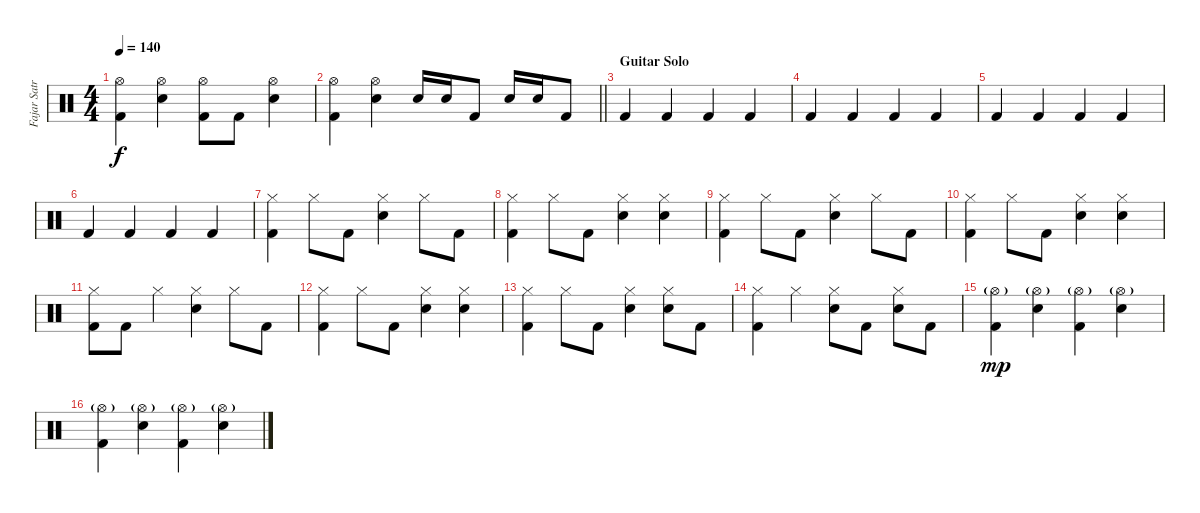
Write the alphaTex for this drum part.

\track ("Fajar Satriana" "Fajar Satr") {instrument percussion}
\staff {score}
\articulation defaults
\ts (4 4)
\tempo 140
\clef neutral
\ks c
("Hi-Hat (open)" "Kick (hit) 2").4{dy f} ("Hi-Hat (open)" "Electric Snare (hit)").4 ("Hi-Hat (open)" "Kick (hit) 2").8 "Kick (hit) 2".8 ("Hi-Hat (open)" "Electric Snare (hit)").4 |
\barLineRight lightlight
("Hi-Hat (open)" "Kick (hit) 2").4 ("Hi-Hat (open)" "Electric Snare (hit)").4 "Electric Snare (hit)".16 "Electric Snare (hit)".16 "Kick (hit) 2".8 "Electric Snare (hit)".16 "Electric Snare (hit)".16 "Kick (hit) 2".8 |
\section ("" "Guitar Solo")
"Kick (hit) 2".4 "Kick (hit) 2".4 "Kick (hit) 2".4 "Kick (hit) 2".4 |
"Kick (hit) 2".4 "Kick (hit) 2".4 "Kick (hit) 2".4 "Kick (hit) 2".4 |
"Kick (hit) 2".4 "Kick (hit) 2".4 "Kick (hit) 2".4 "Kick (hit) 2".4 |
"Kick (hit) 2".4 "Kick (hit) 2".4 "Kick (hit) 2".4 "Kick (hit) 2".4 |
("Hi-Hat (closed)" "Kick (hit) 2").4 "Hi-Hat (closed)".8 "Kick (hit) 2".8 ("Hi-Hat (closed)" "Electric Snare (hit)").4 "Hi-Hat (closed)".8 "Kick (hit) 2".8 |
("Hi-Hat (closed)" "Kick (hit) 2").4 "Hi-Hat (closed)".8 "Kick (hit) 2".8 ("Hi-Hat (closed)" "Electric Snare (hit)").4 ("Hi-Hat (closed)" "Electric Snare (hit)").4 |
("Hi-Hat (closed)" "Kick (hit) 2").4 "Hi-Hat (closed)".8 "Kick (hit) 2".8 ("Hi-Hat (closed)" "Electric Snare (hit)").4 "Hi-Hat (closed)".8 "Kick (hit) 2".8 |
("Hi-Hat (closed)" "Kick (hit) 2").4 "Hi-Hat (closed)".8 "Kick (hit) 2".8 ("Hi-Hat (closed)" "Electric Snare (hit)").4 ("Hi-Hat (closed)" "Electric Snare (hit)").4 |
("Hi-Hat (closed)" "Kick (hit) 2").8 "Kick (hit) 2".8 "Hi-Hat (closed)".4 ("Hi-Hat (closed)" "Electric Snare (hit)").4 "Hi-Hat (closed)".8 "Kick (hit) 2".8 |
("Hi-Hat (closed)" "Kick (hit) 2").4 "Hi-Hat (closed)".8 "Kick (hit) 2".8 ("Hi-Hat (closed)" "Electric Snare (hit)").4 ("Hi-Hat (closed)" "Electric Snare (hit)").4 |
("Hi-Hat (closed)" "Kick (hit) 2").4 "Hi-Hat (closed)".8 "Kick (hit) 2".8 ("Hi-Hat (closed)" "Electric Snare (hit)").4 ("Hi-Hat (closed)" "Electric Snare (hit)").8 "Kick (hit) 2".8 |
("Hi-Hat (closed)" "Kick (hit) 2").4 "Hi-Hat (closed)".4 ("Hi-Hat (closed)" "Electric Snare (hit)").8 "Kick (hit) 2".8 ("Hi-Hat (closed)" "Electric Snare (hit)").8 "Kick (hit) 2".8 |
("Hi-Hat (open)"{g} "Kick (hit) 2").4{dy mp} ("Hi-Hat (open)"{g} "Electric Snare (hit)").4 ("Hi-Hat (open)"{g} "Kick (hit) 2").4 ("Hi-Hat (open)"{g} "Electric Snare (hit)").4 |
("Hi-Hat (open)"{g} "Kick (hit) 2").4 ("Hi-Hat (open)"{g} "Electric Snare (hit)").4 ("Hi-Hat (open)"{g} "Kick (hit) 2").4 ("Hi-Hat (open)"{g} "Electric Snare (hit)").4
